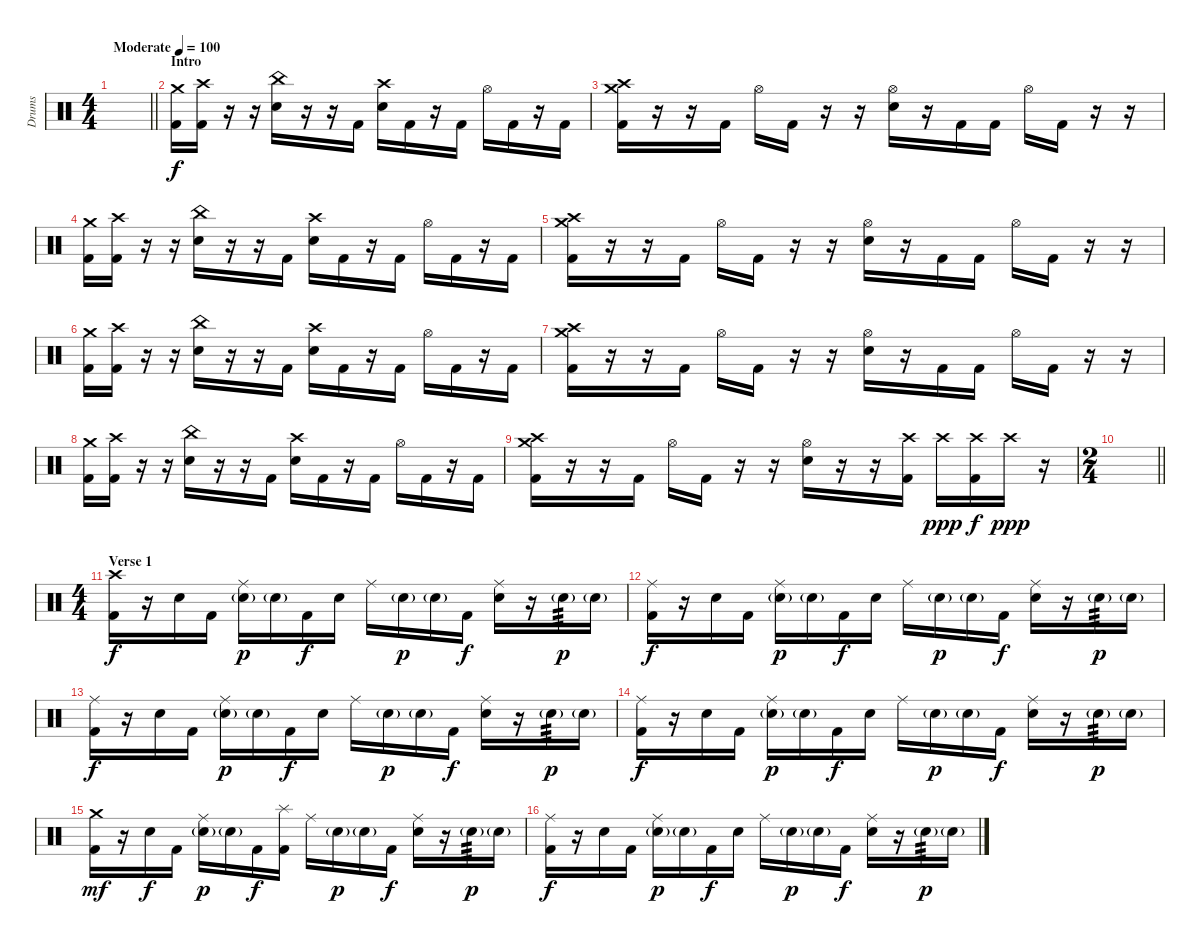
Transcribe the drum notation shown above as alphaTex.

\track ("Drums" "Drums") {instrument percussion}
\staff {score}
\articulation defaults
\ts (4 4)
\tempo (100 "Moderate")
\clef neutral
\barLineRight lightlight
\ks c
|
\section ("" "Intro")
("Crash medium (hit)" "Kick (hit) 2").16 ("Crash high (hit)" "Kick (hit) 2").16 r.16 r.16 ("China (hit)" "Snare (hit) 2").16 r.16 r.16 "Kick (hit) 2".16 ("Crash high (hit)" "Snare (hit) 2").16 "Kick (hit) 2".16 r.16 "Kick (hit) 2".16 "Hi-Hat (open)".16 "Kick (hit) 2".16 r.16 "Kick (hit) 2".16 |
("Crash high (hit)" "Crash medium (hit)" "Kick (hit) 2").16 r.16 r.16 "Kick (hit) 2".16 "Hi-Hat (open)".16 "Kick (hit) 2".16 r.16 r.16 ("Hi-Hat (open)" "Snare (hit) 2").16 r.16 "Kick (hit) 2".16 "Kick (hit) 2".16 "Hi-Hat (open)".16 "Kick (hit) 2".16 r.16 r.16 |
("Crash medium (hit)" "Kick (hit) 2").16 ("Crash high (hit)" "Kick (hit) 2").16 r.16 r.16 ("China (hit)" "Snare (hit) 2").16 r.16 r.16 "Kick (hit) 2".16 ("Crash high (hit)" "Snare (hit) 2").16 "Kick (hit) 2".16 r.16 "Kick (hit) 2".16 "Hi-Hat (open)".16 "Kick (hit) 2".16 r.16 "Kick (hit) 2".16 |
("Crash high (hit)" "Crash medium (hit)" "Kick (hit) 2").16 r.16 r.16 "Kick (hit) 2".16 "Hi-Hat (open)".16 "Kick (hit) 2".16 r.16 r.16 ("Hi-Hat (open)" "Snare (hit) 2").16 r.16 "Kick (hit) 2".16 "Kick (hit) 2".16 "Hi-Hat (open)".16 "Kick (hit) 2".16 r.16 r.16 |
("Crash medium (hit)" "Kick (hit) 2").16 ("Crash high (hit)" "Kick (hit) 2").16 r.16 r.16 ("China (hit)" "Snare (hit) 2").16 r.16 r.16 "Kick (hit) 2".16 ("Crash high (hit)" "Snare (hit) 2").16 "Kick (hit) 2".16 r.16 "Kick (hit) 2".16 "Hi-Hat (open)".16 "Kick (hit) 2".16 r.16 "Kick (hit) 2".16 |
("Crash high (hit)" "Crash medium (hit)" "Kick (hit) 2").16 r.16 r.16 "Kick (hit) 2".16 "Hi-Hat (open)".16 "Kick (hit) 2".16 r.16 r.16 ("Hi-Hat (open)" "Snare (hit) 2").16 r.16 "Kick (hit) 2".16 "Kick (hit) 2".16 "Hi-Hat (open)".16 "Kick (hit) 2".16 r.16 r.16 |
("Crash medium (hit)" "Kick (hit) 2").16 ("Crash high (hit)" "Kick (hit) 2").16 r.16 r.16 ("China (hit)" "Snare (hit) 2").16 r.16 r.16 "Kick (hit) 2".16 ("Crash high (hit)" "Snare (hit) 2").16 "Kick (hit) 2".16 r.16 "Kick (hit) 2".16 "Hi-Hat (open)".16 "Kick (hit) 2".16 r.16 "Kick (hit) 2".16 |
("Crash high (hit)" "Crash medium (hit)" "Kick (hit) 2").16 r.16 r.16 "Kick (hit) 2".16 "Hi-Hat (open)".16 "Kick (hit) 2".16 r.16 r.16 ("Hi-Hat (open)" "Snare (hit) 2").16 r.16 r.16 ("Crash high (hit)" "Kick (hit) 2").16 "Crash high (hit)".16{dy ppp} ("Crash high (hit)" "Kick (hit) 2").16{dy f} "Crash high (hit)".16{dy ppp} r.16 |
\ts (2 4)
\barLineRight lightlight
|
\ts (4 4)
\section ("" "Verse 1")
("Crash high (hit)" "Kick (hit) 2").16{dy f} r.16 "Snare (hit) 2".16 "Kick (hit) 2".16 ("Ride (middle)" "Snare (hit) 2"{g}).16{dy p} "Snare (hit) 2"{g}.16 "Kick (hit) 2".16{dy f} "Snare (hit) 2".16 "Ride (middle)".16 "Snare (hit) 2"{g}.16{dy p} "Snare (hit) 2"{g}.16 "Kick (hit) 2".16{dy f} ("Ride (middle)" "Snare (hit) 2").16 r.16 "Snare (hit) 2"{g}.16{tp 3 dy p} "Snare (hit) 2"{g}.16 |
("Ride (middle)" "Kick (hit) 2").16{dy f} r.16 "Snare (hit) 2".16 "Kick (hit) 2".16 ("Ride (middle)" "Snare (hit) 2"{g}).16{dy p} "Snare (hit) 2"{g}.16 "Kick (hit) 2".16{dy f} "Snare (hit) 2".16 "Ride (middle)".16 "Snare (hit) 2"{g}.16{dy p} "Snare (hit) 2"{g}.16 "Kick (hit) 2".16{dy f} ("Ride (middle)" "Snare (hit) 2").16 r.16 "Snare (hit) 2"{g}.16{tp 3 dy p} "Snare (hit) 2"{g}.16 |
("Ride (middle)" "Kick (hit) 2").16{dy f} r.16 "Snare (hit) 2".16 "Kick (hit) 2".16 ("Ride (middle)" "Snare (hit) 2"{g}).16{dy p} "Snare (hit) 2"{g}.16 "Kick (hit) 2".16{dy f} "Snare (hit) 2".16 "Ride (middle)".16 "Snare (hit) 2"{g}.16{dy p} "Snare (hit) 2"{g}.16 "Kick (hit) 2".16{dy f} ("Ride (middle)" "Snare (hit) 2").16 r.16 "Snare (hit) 2"{g}.16{tp 3 dy p} "Snare (hit) 2"{g}.16 |
("Ride (middle)" "Kick (hit) 2").16{dy f} r.16 "Snare (hit) 2".16 "Kick (hit) 2".16 ("Ride (middle)" "Snare (hit) 2"{g}).16{dy p} "Snare (hit) 2"{g}.16 "Kick (hit) 2".16{dy f} "Snare (hit) 2".16 "Ride (middle)".16 "Snare (hit) 2"{g}.16{dy p} "Snare (hit) 2"{g}.16 "Kick (hit) 2".16{dy f} ("Ride (middle)" "Snare (hit) 2").16 r.16 "Snare (hit) 2"{g}.16{tp 3 dy p} "Snare (hit) 2"{g}.16 |
("Crash medium (hit)" "Kick (hit) 2").16{dy mf} r.16 "Snare (hit) 2".16{dy f} "Kick (hit) 2".16 ("Ride (middle)" "Snare (hit) 2"{g}).16{dy p} "Snare (hit) 2"{g}.16 "Kick (hit) 2".16{dy f} ("Splash (hit)" "Kick (hit) 2").16 "Ride (middle)".16 "Snare (hit) 2"{g}.16{dy p} "Snare (hit) 2"{g}.16 "Kick (hit) 2".16{dy f} ("Ride (middle)" "Snare (hit) 2").16 r.16 "Snare (hit) 2"{g}.16{tp 3 dy p} "Snare (hit) 2"{g}.16 |
("Ride (middle)" "Kick (hit) 2").16{dy f} r.16 "Snare (hit) 2".16 "Kick (hit) 2".16 ("Ride (middle)" "Snare (hit) 2"{g}).16{dy p} "Snare (hit) 2"{g}.16 "Kick (hit) 2".16{dy f} "Snare (hit) 2".16 "Ride (middle)".16 "Snare (hit) 2"{g}.16{dy p} "Snare (hit) 2"{g}.16 "Kick (hit) 2".16{dy f} ("Ride (middle)" "Snare (hit) 2").16 r.16 "Snare (hit) 2"{g}.16{tp 3 dy p} "Snare (hit) 2"{g}.16
